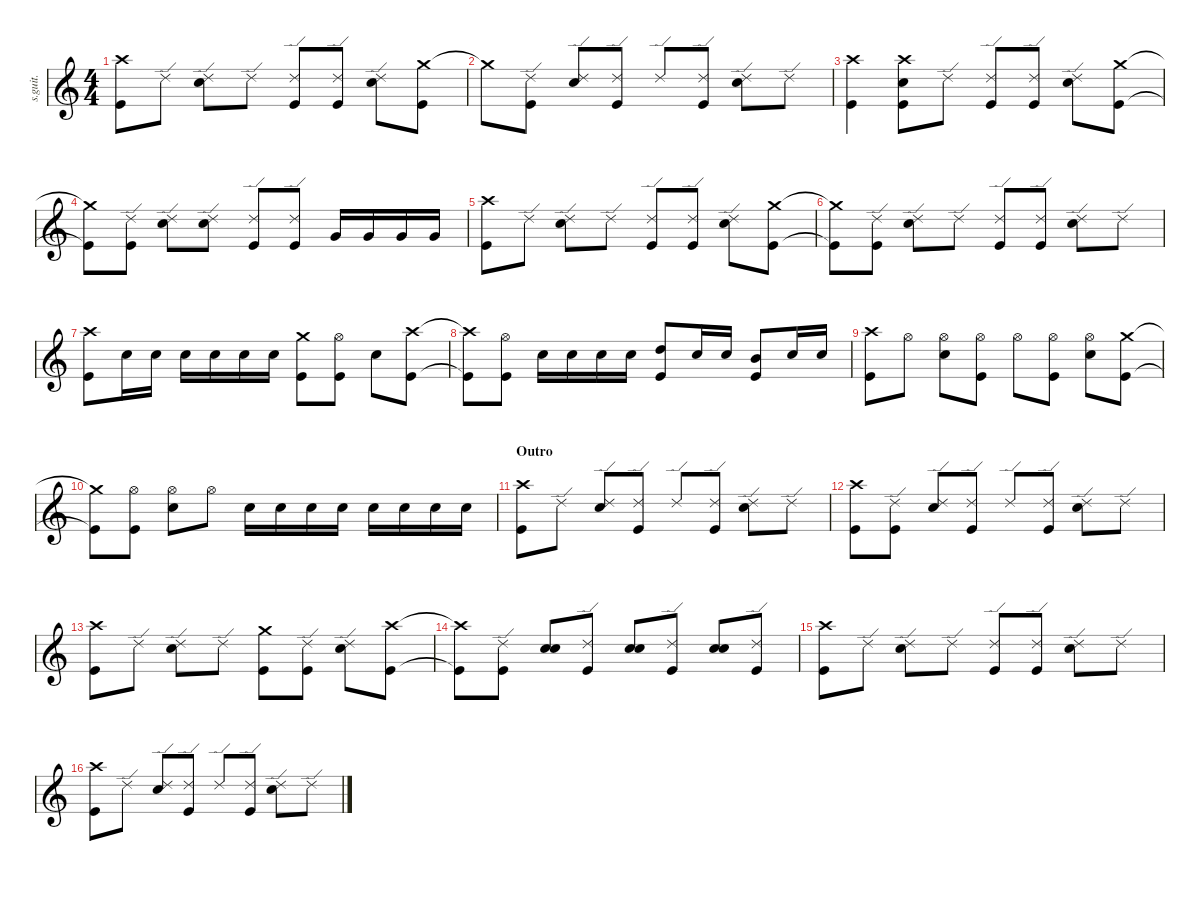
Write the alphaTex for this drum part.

\defaultSystemsLayout 4
\hideDynamics
\bracketExtendMode nobrackets
\track ("Tre Cool" "s.guit.") {instrument percussion}
\staff {score}
\articulation defaults
\ts (4 4)
\tempo (175 hide)
\clef g2
\ks c
("Crash high (hit)" "Kick (hit)").8{lyrics (0 "") lyrics (1 "") lyrics (2 "") lyrics (3 "") lyrics (4 "") dy f} "Ride (edge) 2".8{lyrics (0 "") lyrics (1 "") lyrics (2 "") lyrics (3 "") lyrics (4 "")} ("Ride (edge) 2" "Snare (hit) 2").8{lyrics (0 "") lyrics (1 "") lyrics (2 "") lyrics (3 "") lyrics (4 "")} "Ride (edge) 2".8{lyrics (0 "") lyrics (1 "") lyrics (2 "") lyrics (3 "") lyrics (4 "")} ("Ride (edge) 2" "Kick (hit)").8{lyrics (0 "") lyrics (1 "") lyrics (2 "") lyrics (3 "") lyrics (4 "")} ("Ride (edge) 2" "Kick (hit)").8{lyrics (0 "") lyrics (1 "") lyrics (2 "") lyrics (3 "") lyrics (4 "")} ("Ride (edge) 2" "Snare (hit) 2").8{lyrics (0 "") lyrics (1 "") lyrics (2 "") lyrics (3 "") lyrics (4 "")} ("Crash medium (hit)" "Kick (hit)").8{lyrics (0 "") lyrics (1 "") lyrics (2 "") lyrics (3 "") lyrics (4 "")} |
"Crash medium (hit)"{t}.8{lyrics (0 "") lyrics (1 "") lyrics (2 "") lyrics (3 "") lyrics (4 "")} ("Ride (edge) 2" "Kick (hit)").8{lyrics (0 "") lyrics (1 "") lyrics (2 "") lyrics (3 "") lyrics (4 "")} ("Ride (edge) 2" "Snare (hit) 2").8{lyrics (0 "") lyrics (1 "") lyrics (2 "") lyrics (3 "") lyrics (4 "")} ("Ride (edge) 2" "Kick (hit)").8{lyrics (0 "") lyrics (1 "") lyrics (2 "") lyrics (3 "") lyrics (4 "")} "Ride (edge) 2".8{lyrics (0 "") lyrics (1 "") lyrics (2 "") lyrics (3 "") lyrics (4 "")} ("Ride (edge) 2" "Kick (hit)").8{lyrics (0 "") lyrics (1 "") lyrics (2 "") lyrics (3 "") lyrics (4 "")} ("Ride (edge) 2" "Snare (hit) 2").8{lyrics (0 "") lyrics (1 "") lyrics (2 "") lyrics (3 "") lyrics (4 "")} "Ride (edge) 2".8{lyrics (0 "") lyrics (1 "") lyrics (2 "") lyrics (3 "") lyrics (4 "")} |
("Crash high (hit)" "Kick (hit)").4{lyrics (0 "") lyrics (1 "") lyrics (2 "") lyrics (3 "") lyrics (4 "")} ("Crash high (hit)" "Snare (hit) 2" "Kick (hit)").8{lyrics (0 "") lyrics (1 "") lyrics (2 "") lyrics (3 "") lyrics (4 "")} "Ride (edge) 2".8{lyrics (0 "") lyrics (1 "") lyrics (2 "") lyrics (3 "") lyrics (4 "")} ("Ride (edge) 2" "Kick (hit)").8{lyrics (0 "") lyrics (1 "") lyrics (2 "") lyrics (3 "") lyrics (4 "")} ("Ride (edge) 2" "Kick (hit)").8{lyrics (0 "") lyrics (1 "") lyrics (2 "") lyrics (3 "") lyrics (4 "")} ("Ride (edge) 2" "Snare (hit) 2").8{lyrics (0 "") lyrics (1 "") lyrics (2 "") lyrics (3 "") lyrics (4 "")} ("Crash medium (hit)" "Kick (hit)").8{lyrics (0 "") lyrics (1 "") lyrics (2 "") lyrics (3 "") lyrics (4 "")} |
("Crash medium (hit)"{t} "Kick (hit)"{t}).8{lyrics (0 "") lyrics (1 "") lyrics (2 "") lyrics (3 "") lyrics (4 "")} ("Ride (edge) 2" "Kick (hit)").8{lyrics (0 "") lyrics (1 "") lyrics (2 "") lyrics (3 "") lyrics (4 "")} ("Ride (edge) 2" "Snare (hit) 2").8{lyrics (0 "") lyrics (1 "") lyrics (2 "") lyrics (3 "") lyrics (4 "")} ("Ride (edge) 2" "Snare (hit) 2").8{lyrics (0 "") lyrics (1 "") lyrics (2 "") lyrics (3 "") lyrics (4 "")} ("Ride (edge) 2" "Kick (hit)").8{lyrics (0 "") lyrics (1 "") lyrics (2 "") lyrics (3 "") lyrics (4 "")} ("Ride (edge) 2" "Kick (hit)").8{lyrics (0 "") lyrics (1 "") lyrics (2 "") lyrics (3 "") lyrics (4 "")} "Very Low Tom (hit)".16{lyrics (0 "") lyrics (1 "") lyrics (2 "") lyrics (3 "") lyrics (4 "")} "Very Low Tom (hit)".16{lyrics (0 "") lyrics (1 "") lyrics (2 "") lyrics (3 "") lyrics (4 "")} "Very Low Tom (hit)".16{lyrics (0 "") lyrics (1 "") lyrics (2 "") lyrics (3 "") lyrics (4 "")} "Very Low Tom (hit)".16{lyrics (0 "") lyrics (1 "") lyrics (2 "") lyrics (3 "") lyrics (4 "")} |
("Crash high (hit)" "Kick (hit)").8{lyrics (0 "") lyrics (1 "") lyrics (2 "") lyrics (3 "") lyrics (4 "")} "Ride (edge) 2".8{lyrics (0 "") lyrics (1 "") lyrics (2 "") lyrics (3 "") lyrics (4 "")} ("Ride (edge) 2" "Snare (hit) 2").8{lyrics (0 "") lyrics (1 "") lyrics (2 "") lyrics (3 "") lyrics (4 "")} "Ride (edge) 2".8{lyrics (0 "") lyrics (1 "") lyrics (2 "") lyrics (3 "") lyrics (4 "")} ("Ride (edge) 2" "Kick (hit)").8{lyrics (0 "") lyrics (1 "") lyrics (2 "") lyrics (3 "") lyrics (4 "")} ("Ride (edge) 2" "Kick (hit)").8{lyrics (0 "") lyrics (1 "") lyrics (2 "") lyrics (3 "") lyrics (4 "")} ("Ride (edge) 2" "Snare (hit) 2").8{lyrics (0 "") lyrics (1 "") lyrics (2 "") lyrics (3 "") lyrics (4 "")} ("Crash medium (hit)" "Kick (hit)").8{lyrics (0 "") lyrics (1 "") lyrics (2 "") lyrics (3 "") lyrics (4 "")} |
("Crash medium (hit)"{t} "Kick (hit)"{t}).8{lyrics (0 "") lyrics (1 "") lyrics (2 "") lyrics (3 "") lyrics (4 "")} ("Ride (edge) 2" "Kick (hit)").8{lyrics (0 "") lyrics (1 "") lyrics (2 "") lyrics (3 "") lyrics (4 "")} ("Ride (edge) 2" "Snare (hit) 2").8{lyrics (0 "") lyrics (1 "") lyrics (2 "") lyrics (3 "") lyrics (4 "")} "Ride (edge) 2".8{lyrics (0 "") lyrics (1 "") lyrics (2 "") lyrics (3 "") lyrics (4 "")} ("Ride (edge) 2" "Kick (hit)").8{lyrics (0 "") lyrics (1 "") lyrics (2 "") lyrics (3 "") lyrics (4 "")} ("Ride (edge) 2" "Kick (hit)").8{lyrics (0 "") lyrics (1 "") lyrics (2 "") lyrics (3 "") lyrics (4 "")} ("Ride (edge) 2" "Snare (hit) 2").8{lyrics (0 "") lyrics (1 "") lyrics (2 "") lyrics (3 "") lyrics (4 "")} "Ride (edge) 2".8{lyrics (0 "") lyrics (1 "") lyrics (2 "") lyrics (3 "") lyrics (4 "")} |
("Crash high (hit)" "Kick (hit)").8{lyrics (0 "") lyrics (1 "") lyrics (2 "") lyrics (3 "") lyrics (4 "")} "Snare (hit) 2".16{lyrics (0 "") lyrics (1 "") lyrics (2 "") lyrics (3 "") lyrics (4 "")} "Snare (hit) 2".16{lyrics (0 "") lyrics (1 "") lyrics (2 "") lyrics (3 "") lyrics (4 "")} "Snare (hit) 2".16{lyrics (0 "") lyrics (1 "") lyrics (2 "") lyrics (3 "") lyrics (4 "")} "Snare (hit) 2".16{lyrics (0 "") lyrics (1 "") lyrics (2 "") lyrics (3 "") lyrics (4 "")} "Snare (hit) 2".16{lyrics (0 "") lyrics (1 "") lyrics (2 "") lyrics (3 "") lyrics (4 "")} "Snare (hit) 2".16{lyrics (0 "") lyrics (1 "") lyrics (2 "") lyrics (3 "") lyrics (4 "")} ("Crash medium (hit)" "Kick (hit)").8{lyrics (0 "") lyrics (1 "") lyrics (2 "") lyrics (3 "") lyrics (4 "")} ("Hi-Hat (open)" "Kick (hit)").8{lyrics (0 "") lyrics (1 "") lyrics (2 "") lyrics (3 "") lyrics (4 "")} "Snare (hit) 2".8{lyrics (0 "") lyrics (1 "") lyrics (2 "") lyrics (3 "") lyrics (4 "")} ("Crash high (hit)" "Kick (hit)").8{lyrics (0 "") lyrics (1 "") lyrics (2 "") lyrics (3 "") lyrics (4 "")} |
("Crash high (hit)"{t} "Kick (hit)"{t}).8{lyrics (0 "") lyrics (1 "") lyrics (2 "") lyrics (3 "") lyrics (4 "")} ("Hi-Hat (open)" "Kick (hit)").8{lyrics (0 "") lyrics (1 "") lyrics (2 "") lyrics (3 "") lyrics (4 "")} "Snare (hit) 2".16{lyrics (0 "") lyrics (1 "") lyrics (2 "") lyrics (3 "") lyrics (4 "")} "Snare (hit) 2".16{lyrics (0 "") lyrics (1 "") lyrics (2 "") lyrics (3 "") lyrics (4 "")} "Snare (hit) 2".16{lyrics (0 "") lyrics (1 "") lyrics (2 "") lyrics (3 "") lyrics (4 "")} "Snare (hit) 2".16{lyrics (0 "") lyrics (1 "") lyrics (2 "") lyrics (3 "") lyrics (4 "")} ("High Tom (hit)" "Kick (hit)").8{lyrics (0 "") lyrics (1 "") lyrics (2 "") lyrics (3 "") lyrics (4 "") dy fff} "Snare (hit) 2".16{lyrics (0 "") lyrics (1 "") lyrics (2 "") lyrics (3 "") lyrics (4 "")} "Snare (hit) 2".16{lyrics (0 "") lyrics (1 "") lyrics (2 "") lyrics (3 "") lyrics (4 "")} ("Mid Tom (hit)" "Kick (hit)").8{lyrics (0 "") lyrics (1 "") lyrics (2 "") lyrics (3 "") lyrics (4 "")} "Snare (hit) 2".16{lyrics (0 "") lyrics (1 "") lyrics (2 "") lyrics (3 "") lyrics (4 "")} "Snare (hit) 2".16{lyrics (0 "") lyrics (1 "") lyrics (2 "") lyrics (3 "") lyrics (4 "")} |
("Crash high (hit)" "Kick (hit)").8{lyrics (0 "") lyrics (1 "") lyrics (2 "") lyrics (3 "") lyrics (4 "")} "Hi-Hat (open)".8{lyrics (0 "") lyrics (1 "") lyrics (2 "") lyrics (3 "") lyrics (4 "")} ("Hi-Hat (open)" "Snare (hit) 2").8{lyrics (0 "") lyrics (1 "") lyrics (2 "") lyrics (3 "") lyrics (4 "")} ("Hi-Hat (open)" "Kick (hit)").8{lyrics (0 "") lyrics (1 "") lyrics (2 "") lyrics (3 "") lyrics (4 "")} "Hi-Hat (open)".8{lyrics (0 "") lyrics (1 "") lyrics (2 "") lyrics (3 "") lyrics (4 "")} ("Hi-Hat (open)" "Kick (hit)").8{lyrics (0 "") lyrics (1 "") lyrics (2 "") lyrics (3 "") lyrics (4 "")} ("Hi-Hat (open)" "Snare (hit) 2").8{lyrics (0 "") lyrics (1 "") lyrics (2 "") lyrics (3 "") lyrics (4 "")} ("Crash medium (hit)" "Kick (hit)").8{lyrics (0 "") lyrics (1 "") lyrics (2 "") lyrics (3 "") lyrics (4 "")} |
("Crash medium (hit)"{t} "Kick (hit)"{t}).8{lyrics (0 "") lyrics (1 "") lyrics (2 "") lyrics (3 "") lyrics (4 "")} ("Hi-Hat (open)" "Kick (hit)").8{lyrics (0 "") lyrics (1 "") lyrics (2 "") lyrics (3 "") lyrics (4 "")} ("Hi-Hat (open)" "Snare (hit) 2").8{lyrics (0 "") lyrics (1 "") lyrics (2 "") lyrics (3 "") lyrics (4 "")} "Hi-Hat (open)".8{lyrics (0 "") lyrics (1 "") lyrics (2 "") lyrics (3 "") lyrics (4 "")} "Snare (hit) 2".16{lyrics (0 "") lyrics (1 "") lyrics (2 "") lyrics (3 "") lyrics (4 "")} "Snare (hit) 2".16{lyrics (0 "") lyrics (1 "") lyrics (2 "") lyrics (3 "") lyrics (4 "")} "Snare (hit) 2".16{lyrics (0 "") lyrics (1 "") lyrics (2 "") lyrics (3 "") lyrics (4 "")} "Snare (hit) 2".16{lyrics (0 "") lyrics (1 "") lyrics (2 "") lyrics (3 "") lyrics (4 "")} "Snare (hit) 2".16{lyrics (0 "") lyrics (1 "") lyrics (2 "") lyrics (3 "") lyrics (4 "")} "Snare (hit) 2".16{lyrics (0 "") lyrics (1 "") lyrics (2 "") lyrics (3 "") lyrics (4 "")} "Snare (hit) 2".16{lyrics (0 "") lyrics (1 "") lyrics (2 "") lyrics (3 "") lyrics (4 "")} "Snare (hit) 2".16{lyrics (0 "") lyrics (1 "") lyrics (2 "") lyrics (3 "") lyrics (4 "")} |
\section ("" "Outro")
("Crash high (hit)" "Kick (hit)").8{lyrics (0 "") lyrics (1 "") lyrics (2 "") lyrics (3 "") lyrics (4 "")} "Ride (edge) 2".8{lyrics (0 "") lyrics (1 "") lyrics (2 "") lyrics (3 "") lyrics (4 "")} ("Ride (edge) 2" "Snare (hit) 2").8{lyrics (0 "") lyrics (1 "") lyrics (2 "") lyrics (3 "") lyrics (4 "")} ("Ride (edge) 2" "Kick (hit)").8{lyrics (0 "") lyrics (1 "") lyrics (2 "") lyrics (3 "") lyrics (4 "")} "Ride (edge) 2".8{lyrics (0 "") lyrics (1 "") lyrics (2 "") lyrics (3 "") lyrics (4 "")} ("Ride (edge) 2" "Kick (hit)").8{lyrics (0 "") lyrics (1 "") lyrics (2 "") lyrics (3 "") lyrics (4 "")} ("Ride (edge) 2" "Snare (hit) 2").8{lyrics (0 "") lyrics (1 "") lyrics (2 "") lyrics (3 "") lyrics (4 "")} "Ride (edge) 2".8{lyrics (0 "") lyrics (1 "") lyrics (2 "") lyrics (3 "") lyrics (4 "")} |
("Crash high (hit)" "Kick (hit)").8{lyrics (0 "") lyrics (1 "") lyrics (2 "") lyrics (3 "") lyrics (4 "")} ("Ride (edge) 2" "Kick (hit)").8{lyrics (0 "") lyrics (1 "") lyrics (2 "") lyrics (3 "") lyrics (4 "")} ("Ride (edge) 2" "Snare (hit) 2").8{lyrics (0 "") lyrics (1 "") lyrics (2 "") lyrics (3 "") lyrics (4 "")} ("Ride (edge) 2" "Kick (hit)").8{lyrics (0 "") lyrics (1 "") lyrics (2 "") lyrics (3 "") lyrics (4 "")} "Ride (edge) 2".8{lyrics (0 "") lyrics (1 "") lyrics (2 "") lyrics (3 "") lyrics (4 "")} ("Ride (edge) 2" "Kick (hit)").8{lyrics (0 "") lyrics (1 "") lyrics (2 "") lyrics (3 "") lyrics (4 "")} ("Ride (edge) 2" "Snare (hit) 2").8{lyrics (0 "") lyrics (1 "") lyrics (2 "") lyrics (3 "") lyrics (4 "")} "Ride (edge) 2".8{lyrics (0 "") lyrics (1 "") lyrics (2 "") lyrics (3 "") lyrics (4 "")} |
("Crash high (hit)" "Kick (hit)").8{lyrics (0 "") lyrics (1 "") lyrics (2 "") lyrics (3 "") lyrics (4 "")} "Ride (edge) 2".8{lyrics (0 "") lyrics (1 "") lyrics (2 "") lyrics (3 "") lyrics (4 "")} ("Ride (edge) 2" "Snare (hit) 2").8{lyrics (0 "") lyrics (1 "") lyrics (2 "") lyrics (3 "") lyrics (4 "")} "Ride (edge) 2".8{lyrics (0 "") lyrics (1 "") lyrics (2 "") lyrics (3 "") lyrics (4 "")} ("Crash medium (hit)" "Kick (hit)").8{lyrics (0 "") lyrics (1 "") lyrics (2 "") lyrics (3 "") lyrics (4 "")} ("Ride (edge) 2" "Kick (hit)").8{lyrics (0 "") lyrics (1 "") lyrics (2 "") lyrics (3 "") lyrics (4 "")} ("Ride (edge) 2" "Snare (hit) 2").8{lyrics (0 "") lyrics (1 "") lyrics (2 "") lyrics (3 "") lyrics (4 "")} ("Crash high (hit)" "Kick (hit)").8{lyrics (0 "") lyrics (1 "") lyrics (2 "") lyrics (3 "") lyrics (4 "")} |
("Crash high (hit)"{t} "Kick (hit)"{t}).8{lyrics (0 "") lyrics (1 "") lyrics (2 "") lyrics (3 "") lyrics (4 "")} ("Ride (edge) 2" "Kick (hit)").8{lyrics (0 "") lyrics (1 "") lyrics (2 "") lyrics (3 "") lyrics (4 "")} ("Snare (hit) 2" "Snare (hit) 2").8{bd 30 lyrics (0 "") lyrics (1 "") lyrics (2 "") lyrics (3 "") lyrics (4 "")} ("Ride (edge) 2" "Kick (hit)").8{lyrics (0 "") lyrics (1 "") lyrics (2 "") lyrics (3 "") lyrics (4 "")} ("Snare (hit) 2" "Snare (hit) 2").8{bd 30 lyrics (0 "") lyrics (1 "") lyrics (2 "") lyrics (3 "") lyrics (4 "")} ("Ride (edge) 2" "Kick (hit)").8{lyrics (0 "") lyrics (1 "") lyrics (2 "") lyrics (3 "") lyrics (4 "")} ("Snare (hit) 2" "Snare (hit) 2").8{bd 30 lyrics (0 "") lyrics (1 "") lyrics (2 "") lyrics (3 "") lyrics (4 "")} ("Ride (edge) 2" "Kick (hit)").8{lyrics (0 "") lyrics (1 "") lyrics (2 "") lyrics (3 "") lyrics (4 "")} |
("Crash high (hit)" "Kick (hit)").8{lyrics (0 "") lyrics (1 "") lyrics (2 "") lyrics (3 "") lyrics (4 "")} "Ride (edge) 2".8{lyrics (0 "") lyrics (1 "") lyrics (2 "") lyrics (3 "") lyrics (4 "")} ("Ride (edge) 2" "Snare (hit) 2").8{lyrics (0 "") lyrics (1 "") lyrics (2 "") lyrics (3 "") lyrics (4 "")} "Ride (edge) 2".8{lyrics (0 "") lyrics (1 "") lyrics (2 "") lyrics (3 "") lyrics (4 "")} ("Ride (edge) 2" "Kick (hit)").8{lyrics (0 "") lyrics (1 "") lyrics (2 "") lyrics (3 "") lyrics (4 "")} ("Ride (edge) 2" "Kick (hit)").8{lyrics (0 "") lyrics (1 "") lyrics (2 "") lyrics (3 "") lyrics (4 "")} ("Ride (edge) 2" "Snare (hit) 2").8{lyrics (0 "") lyrics (1 "") lyrics (2 "") lyrics (3 "") lyrics (4 "")} "Ride (edge) 2".8{lyrics (0 "") lyrics (1 "") lyrics (2 "") lyrics (3 "") lyrics (4 "")} |
("Crash high (hit)" "Kick (hit)").8{lyrics (0 "") lyrics (1 "") lyrics (2 "") lyrics (3 "") lyrics (4 "")} "Ride (edge) 2".8{lyrics (0 "") lyrics (1 "") lyrics (2 "") lyrics (3 "") lyrics (4 "")} ("Ride (edge) 2" "Snare (hit) 2").8{lyrics (0 "") lyrics (1 "") lyrics (2 "") lyrics (3 "") lyrics (4 "")} ("Ride (edge) 2" "Kick (hit)").8{lyrics (0 "") lyrics (1 "") lyrics (2 "") lyrics (3 "") lyrics (4 "")} "Ride (edge) 2".8{lyrics (0 "") lyrics (1 "") lyrics (2 "") lyrics (3 "") lyrics (4 "")} ("Ride (edge) 2" "Kick (hit)").8{lyrics (0 "") lyrics (1 "") lyrics (2 "") lyrics (3 "") lyrics (4 "")} ("Ride (edge) 2" "Snare (hit) 2").8{lyrics (0 "") lyrics (1 "") lyrics (2 "") lyrics (3 "") lyrics (4 "")} "Ride (edge) 2".8{lyrics (0 "") lyrics (1 "") lyrics (2 "") lyrics (3 "") lyrics (4 "")}
